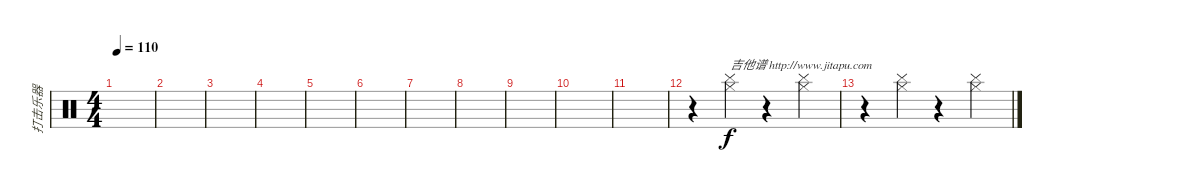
\track ("打击乐器" "打击乐器") {instrument percussion}
\staff {score}
\articulation defaults
\ts (4 4)
\tempo 110
\clef neutral
\ks c
|
|
|
|
|
|
|
|
|
|
|
r.4 ("Cymbal (hit)" "Hi-Hat (closed)").4{txt "吉他谱 http://www.jitapu.com" dy f} r.4 ("Cymbal (hit)" "Hi-Hat (closed)").4 |
r.4 ("Cymbal (hit)" "Hi-Hat (closed)").4 r.4 ("Cymbal (hit)" "Hi-Hat (closed)").4
